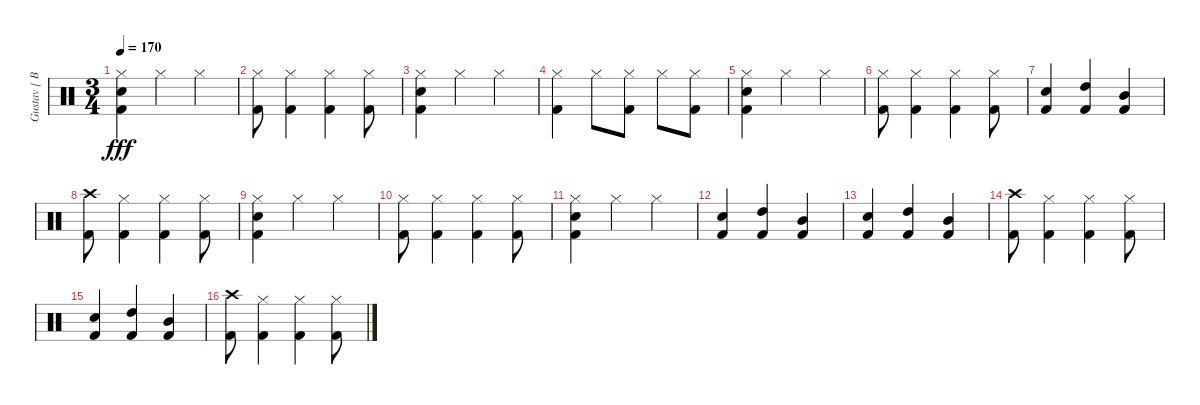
\track ("Gustav [ Batterie ]" "Gustav [ B") {instrument percussion}
\staff {score}
\articulation defaults
\ts (3 4)
\tempo 170
\clef neutral
\ks c
("Hi-Hat (closed)" "Snare (hit) 2" "Kick (hit) 2").4{dy fff} "Hi-Hat (closed)".4 "Hi-Hat (closed)".4 |
("Hi-Hat (closed)" "Kick (hit) 2").8 ("Hi-Hat (closed)" "Kick (hit) 2").4 ("Hi-Hat (closed)" "Kick (hit) 2").4 ("Hi-Hat (closed)" "Kick (hit) 2").8 |
("Hi-Hat (closed)" "Snare (hit) 2" "Kick (hit) 2").4 "Hi-Hat (closed)".4 "Hi-Hat (closed)".4 |
("Hi-Hat (closed)" "Kick (hit) 2").4 "Hi-Hat (closed)".8 ("Hi-Hat (closed)" "Kick (hit) 2").8 "Hi-Hat (closed)".8 ("Hi-Hat (closed)" "Kick (hit) 2").8 |
("Hi-Hat (closed)" "Snare (hit) 2" "Kick (hit) 2").4 "Hi-Hat (closed)".4 "Hi-Hat (closed)".4 |
("Hi-Hat (closed)" "Kick (hit) 2").8 ("Hi-Hat (closed)" "Kick (hit) 2").4 ("Hi-Hat (closed)" "Kick (hit) 2").4 ("Hi-Hat (closed)" "Kick (hit) 2").8 |
("Snare (hit) 2" "Kick (hit) 2").4 ("High Tom (hit)" "Kick (hit) 2").4 ("Mid Tom (hit)" "Kick (hit) 2").4 |
("Crash high (hit)" "Kick (hit) 2").8 ("Hi-Hat (closed)" "Kick (hit) 2").4 ("Hi-Hat (closed)" "Kick (hit) 2").4 ("Hi-Hat (closed)" "Kick (hit) 2").8 |
("Hi-Hat (closed)" "Snare (hit) 2" "Kick (hit) 2").4 "Hi-Hat (closed)".4 "Hi-Hat (closed)".4 |
("Hi-Hat (closed)" "Kick (hit) 2").8 ("Hi-Hat (closed)" "Kick (hit) 2").4 ("Hi-Hat (closed)" "Kick (hit) 2").4 ("Hi-Hat (closed)" "Kick (hit) 2").8 |
("Hi-Hat (closed)" "Snare (hit) 2" "Kick (hit) 2").4 "Hi-Hat (closed)".4 "Hi-Hat (closed)".4 |
("Snare (hit) 2" "Kick (hit) 2").4 ("High Tom (hit)" "Kick (hit) 2").4 ("Mid Tom (hit)" "Kick (hit) 2").4 |
("Snare (hit) 2" "Kick (hit) 2").4 ("High Tom (hit)" "Kick (hit) 2").4 ("Mid Tom (hit)" "Kick (hit) 2").4 |
("Crash high (hit)" "Kick (hit) 2").8 ("Hi-Hat (closed)" "Kick (hit) 2").4 ("Hi-Hat (closed)" "Kick (hit) 2").4 ("Hi-Hat (closed)" "Kick (hit) 2").8 |
("Snare (hit) 2" "Kick (hit) 2").4 ("High Tom (hit)" "Kick (hit) 2").4 ("Mid Tom (hit)" "Kick (hit) 2").4 |
("Crash high (hit)" "Kick (hit) 2").8 ("Hi-Hat (closed)" "Kick (hit) 2").4 ("Hi-Hat (closed)" "Kick (hit) 2").4 ("Hi-Hat (closed)" "Kick (hit) 2").8
